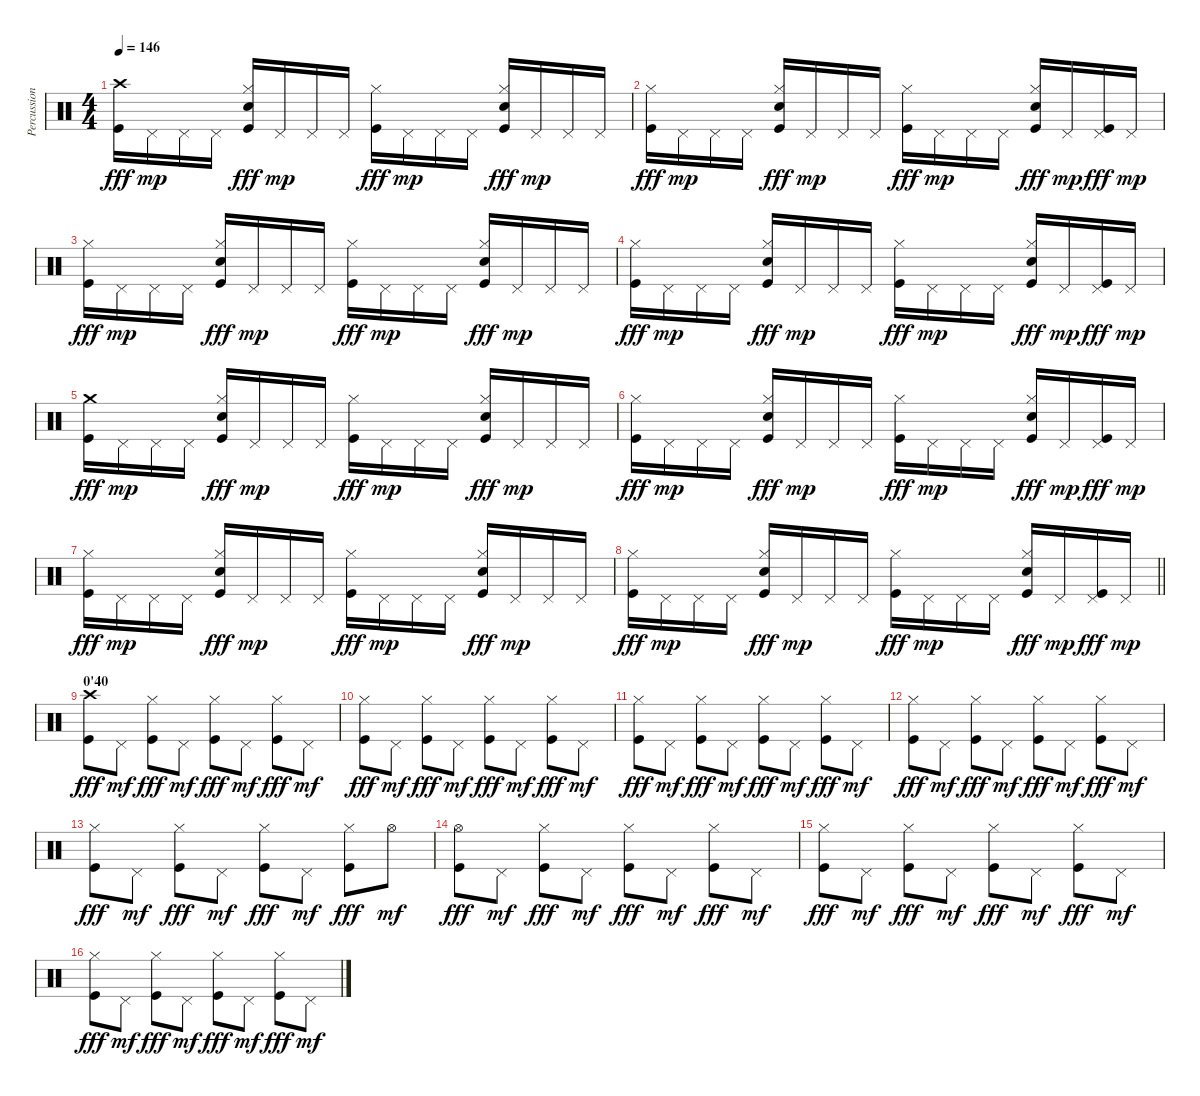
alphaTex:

\track ("Percussions" "Percussion") {instrument percussion}
\staff {score}
\articulation defaults
\ts (4 4)
\tempo 146
\clef neutral
\ks c
("Crash high (hit)" "Kick (hit)").16{dy fff} "Pedal Hi-Hat (hit)".16{dy mp} "Pedal Hi-Hat (hit)".16 "Pedal Hi-Hat (hit)".16 ("Hi-Hat (closed)" "Electric Snare (hit)" "Kick (hit)").16{dy fff} "Pedal Hi-Hat (hit)".16{dy mp} "Pedal Hi-Hat (hit)".16 "Pedal Hi-Hat (hit)".16 ("Hi-Hat (closed)" "Kick (hit)").16{dy fff} "Pedal Hi-Hat (hit)".16{dy mp} "Pedal Hi-Hat (hit)".16 "Pedal Hi-Hat (hit)".16 ("Hi-Hat (closed)" "Electric Snare (hit)" "Kick (hit)").16{dy fff} "Pedal Hi-Hat (hit)".16{dy mp} "Pedal Hi-Hat (hit)".16 "Pedal Hi-Hat (hit)".16 |
("Hi-Hat (closed)" "Kick (hit)").16{dy fff} "Pedal Hi-Hat (hit)".16{dy mp} "Pedal Hi-Hat (hit)".16 "Pedal Hi-Hat (hit)".16 ("Hi-Hat (closed)" "Electric Snare (hit)" "Kick (hit)").16{dy fff} "Pedal Hi-Hat (hit)".16{dy mp} "Pedal Hi-Hat (hit)".16 "Pedal Hi-Hat (hit)".16 ("Hi-Hat (closed)" "Kick (hit)").16{dy fff} "Pedal Hi-Hat (hit)".16{dy mp} "Pedal Hi-Hat (hit)".16 "Pedal Hi-Hat (hit)".16 ("Hi-Hat (closed)" "Electric Snare (hit)" "Kick (hit)").16{dy fff} "Pedal Hi-Hat (hit)".16{dy mp} ("Pedal Hi-Hat (hit)" "Kick (hit)").16{dy fff} "Pedal Hi-Hat (hit)".16{dy mp} |
("Hi-Hat (closed)" "Kick (hit)").16{dy fff} "Pedal Hi-Hat (hit)".16{dy mp} "Pedal Hi-Hat (hit)".16 "Pedal Hi-Hat (hit)".16 ("Hi-Hat (closed)" "Electric Snare (hit)" "Kick (hit)").16{dy fff} "Pedal Hi-Hat (hit)".16{dy mp} "Pedal Hi-Hat (hit)".16 "Pedal Hi-Hat (hit)".16 ("Hi-Hat (closed)" "Kick (hit)").16{dy fff} "Pedal Hi-Hat (hit)".16{dy mp} "Pedal Hi-Hat (hit)".16 "Pedal Hi-Hat (hit)".16 ("Hi-Hat (closed)" "Electric Snare (hit)" "Kick (hit)").16{dy fff} "Pedal Hi-Hat (hit)".16{dy mp} "Pedal Hi-Hat (hit)".16 "Pedal Hi-Hat (hit)".16 |
("Hi-Hat (closed)" "Kick (hit)").16{dy fff} "Pedal Hi-Hat (hit)".16{dy mp} "Pedal Hi-Hat (hit)".16 "Pedal Hi-Hat (hit)".16 ("Hi-Hat (closed)" "Electric Snare (hit)" "Kick (hit)").16{dy fff} "Pedal Hi-Hat (hit)".16{dy mp} "Pedal Hi-Hat (hit)".16 "Pedal Hi-Hat (hit)".16 ("Hi-Hat (closed)" "Kick (hit)").16{dy fff} "Pedal Hi-Hat (hit)".16{dy mp} "Pedal Hi-Hat (hit)".16 "Pedal Hi-Hat (hit)".16 ("Hi-Hat (closed)" "Electric Snare (hit)" "Kick (hit)").16{dy fff} "Pedal Hi-Hat (hit)".16{dy mp} ("Pedal Hi-Hat (hit)" "Kick (hit)").16{dy fff} "Pedal Hi-Hat (hit)".16{dy mp} |
("Crash medium (hit)" "Kick (hit)").16{dy fff} "Pedal Hi-Hat (hit)".16{dy mp} "Pedal Hi-Hat (hit)".16 "Pedal Hi-Hat (hit)".16 ("Hi-Hat (closed)" "Electric Snare (hit)" "Kick (hit)").16{dy fff} "Pedal Hi-Hat (hit)".16{dy mp} "Pedal Hi-Hat (hit)".16 "Pedal Hi-Hat (hit)".16 ("Hi-Hat (closed)" "Kick (hit)").16{dy fff} "Pedal Hi-Hat (hit)".16{dy mp} "Pedal Hi-Hat (hit)".16 "Pedal Hi-Hat (hit)".16 ("Hi-Hat (closed)" "Electric Snare (hit)" "Kick (hit)").16{dy fff} "Pedal Hi-Hat (hit)".16{dy mp} "Pedal Hi-Hat (hit)".16 "Pedal Hi-Hat (hit)".16 |
("Hi-Hat (closed)" "Kick (hit)").16{dy fff} "Pedal Hi-Hat (hit)".16{dy mp} "Pedal Hi-Hat (hit)".16 "Pedal Hi-Hat (hit)".16 ("Hi-Hat (closed)" "Electric Snare (hit)" "Kick (hit)").16{dy fff} "Pedal Hi-Hat (hit)".16{dy mp} "Pedal Hi-Hat (hit)".16 "Pedal Hi-Hat (hit)".16 ("Hi-Hat (closed)" "Kick (hit)").16{dy fff} "Pedal Hi-Hat (hit)".16{dy mp} "Pedal Hi-Hat (hit)".16 "Pedal Hi-Hat (hit)".16 ("Hi-Hat (closed)" "Electric Snare (hit)" "Kick (hit)").16{dy fff} "Pedal Hi-Hat (hit)".16{dy mp} ("Pedal Hi-Hat (hit)" "Kick (hit)").16{dy fff} "Pedal Hi-Hat (hit)".16{dy mp} |
("Hi-Hat (closed)" "Kick (hit)").16{dy fff} "Pedal Hi-Hat (hit)".16{dy mp} "Pedal Hi-Hat (hit)".16 "Pedal Hi-Hat (hit)".16 ("Hi-Hat (closed)" "Electric Snare (hit)" "Kick (hit)").16{dy fff} "Pedal Hi-Hat (hit)".16{dy mp} "Pedal Hi-Hat (hit)".16 "Pedal Hi-Hat (hit)".16 ("Hi-Hat (closed)" "Kick (hit)").16{dy fff} "Pedal Hi-Hat (hit)".16{dy mp} "Pedal Hi-Hat (hit)".16 "Pedal Hi-Hat (hit)".16 ("Hi-Hat (closed)" "Electric Snare (hit)" "Kick (hit)").16{dy fff} "Pedal Hi-Hat (hit)".16{dy mp} "Pedal Hi-Hat (hit)".16 "Pedal Hi-Hat (hit)".16 |
\barLineRight lightlight
("Hi-Hat (closed)" "Kick (hit)").16{dy fff} "Pedal Hi-Hat (hit)".16{dy mp} "Pedal Hi-Hat (hit)".16 "Pedal Hi-Hat (hit)".16 ("Hi-Hat (closed)" "Electric Snare (hit)" "Kick (hit)").16{dy fff} "Pedal Hi-Hat (hit)".16{dy mp} "Pedal Hi-Hat (hit)".16 "Pedal Hi-Hat (hit)".16 ("Hi-Hat (closed)" "Kick (hit)").16{dy fff} "Pedal Hi-Hat (hit)".16{dy mp} "Pedal Hi-Hat (hit)".16 "Pedal Hi-Hat (hit)".16 ("Hi-Hat (closed)" "Electric Snare (hit)" "Kick (hit)").16{dy fff} "Pedal Hi-Hat (hit)".16{dy mp} ("Pedal Hi-Hat (hit)" "Kick (hit)").16{dy fff} "Pedal Hi-Hat (hit)".16{dy mp} |
\section ("" "0'40")
("Crash high (hit)" "Kick (hit)").8{dy fff} "Pedal Hi-Hat (hit)".8{dy mf} ("Hi-Hat (closed)" "Kick (hit)").8{dy fff} "Pedal Hi-Hat (hit)".8{dy mf} ("Hi-Hat (closed)" "Kick (hit)").8{dy fff} "Pedal Hi-Hat (hit)".8{dy mf} ("Hi-Hat (closed)" "Kick (hit)").8{dy fff} "Pedal Hi-Hat (hit)".8{dy mf} |
("Hi-Hat (closed)" "Kick (hit)").8{dy fff} "Pedal Hi-Hat (hit)".8{dy mf} ("Hi-Hat (closed)" "Kick (hit)").8{dy fff} "Pedal Hi-Hat (hit)".8{dy mf} ("Hi-Hat (closed)" "Kick (hit)").8{dy fff} "Pedal Hi-Hat (hit)".8{dy mf} ("Hi-Hat (closed)" "Kick (hit)").8{dy fff} "Pedal Hi-Hat (hit)".8{dy mf} |
("Hi-Hat (closed)" "Kick (hit)").8{dy fff} "Pedal Hi-Hat (hit)".8{dy mf} ("Hi-Hat (closed)" "Kick (hit)").8{dy fff} "Pedal Hi-Hat (hit)".8{dy mf} ("Hi-Hat (closed)" "Kick (hit)").8{dy fff} "Pedal Hi-Hat (hit)".8{dy mf} ("Hi-Hat (closed)" "Kick (hit)").8{dy fff} "Pedal Hi-Hat (hit)".8{dy mf} |
("Hi-Hat (closed)" "Kick (hit)").8{dy fff} "Pedal Hi-Hat (hit)".8{dy mf} ("Hi-Hat (closed)" "Kick (hit)").8{dy fff} "Pedal Hi-Hat (hit)".8{dy mf} ("Hi-Hat (closed)" "Kick (hit)").8{dy fff} "Pedal Hi-Hat (hit)".8{dy mf} ("Hi-Hat (closed)" "Kick (hit)").8{dy fff} "Pedal Hi-Hat (hit)".8{dy mf} |
("Hi-Hat (closed)" "Kick (hit)").8{dy fff} "Pedal Hi-Hat (hit)".8{dy mf} ("Hi-Hat (closed)" "Kick (hit)").8{dy fff} "Pedal Hi-Hat (hit)".8{dy mf} ("Hi-Hat (closed)" "Kick (hit)").8{dy fff} "Pedal Hi-Hat (hit)".8{dy mf} ("Hi-Hat (closed)" "Kick (hit)").8{dy fff} "Hi-Hat (open)".8{dy mf} |
("Hi-Hat (open)" "Kick (hit)").8{dy fff} "Pedal Hi-Hat (hit)".8{dy mf} ("Hi-Hat (closed)" "Kick (hit)").8{dy fff} "Pedal Hi-Hat (hit)".8{dy mf} ("Hi-Hat (closed)" "Kick (hit)").8{dy fff} "Pedal Hi-Hat (hit)".8{dy mf} ("Hi-Hat (closed)" "Kick (hit)").8{dy fff} "Pedal Hi-Hat (hit)".8{dy mf} |
("Hi-Hat (closed)" "Kick (hit)").8{dy fff} "Pedal Hi-Hat (hit)".8{dy mf} ("Hi-Hat (closed)" "Kick (hit)").8{dy fff} "Pedal Hi-Hat (hit)".8{dy mf} ("Hi-Hat (closed)" "Kick (hit)").8{dy fff} "Pedal Hi-Hat (hit)".8{dy mf} ("Hi-Hat (closed)" "Kick (hit)").8{dy fff} "Pedal Hi-Hat (hit)".8{dy mf} |
("Hi-Hat (closed)" "Kick (hit)").8{dy fff} "Pedal Hi-Hat (hit)".8{dy mf} ("Hi-Hat (closed)" "Kick (hit)").8{dy fff} "Pedal Hi-Hat (hit)".8{dy mf} ("Hi-Hat (closed)" "Kick (hit)").8{dy fff} "Pedal Hi-Hat (hit)".8{dy mf} ("Hi-Hat (closed)" "Kick (hit)").8{dy fff} "Pedal Hi-Hat (hit)".8{dy mf}
